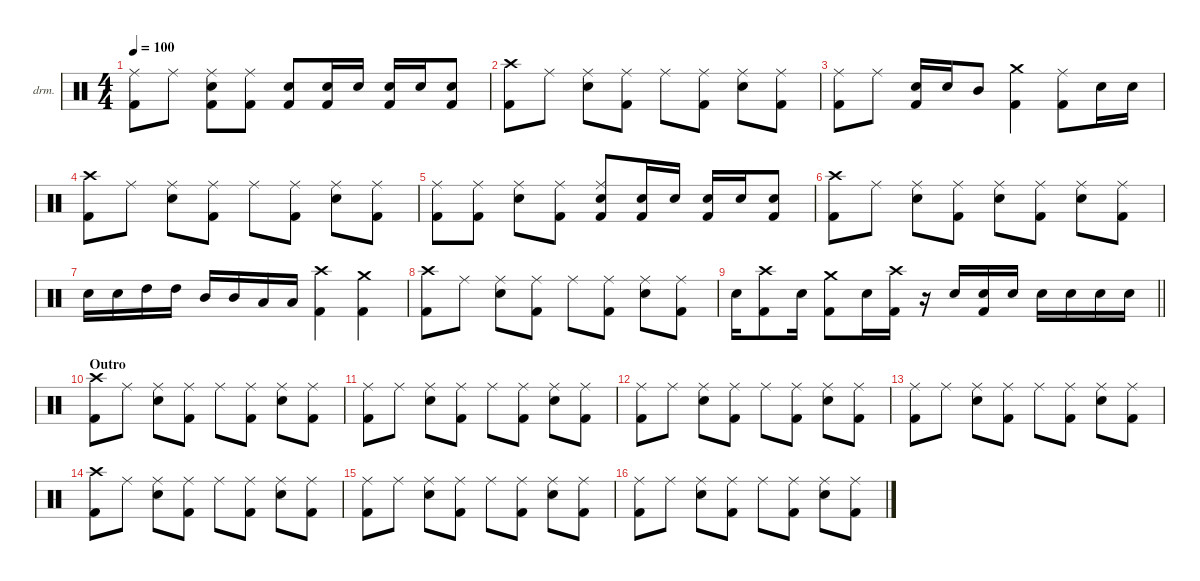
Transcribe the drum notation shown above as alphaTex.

\defaultSystemsLayout 4
\hideDynamics
\bracketExtendMode nobrackets
\firstSystemTrackNameOrientation horizontal
\otherSystemsTrackNameOrientation horizontal
\track ("Drums" "drm.") {instrument percussion}
\staff {score}
\articulation defaults
\ts (4 4)
\tempo 100
\clef neutral
\ks c
("Kick (hit) 2" "Ride (middle)").8{dy f} "Ride (middle)".8 ("Kick (hit) 2" "Snare (hit) 2" "Ride (middle)").8 ("Kick (hit) 2" "Ride (middle)").8 ("Kick (hit) 2" "Snare (hit) 2").8 ("Kick (hit) 2" "Snare (hit) 2").16 "Snare (hit) 2".16 ("Kick (hit) 2" "Snare (hit) 2").16 "Snare (hit) 2".16 ("Kick (hit) 2" "Snare (hit) 2").8 |
("Kick (hit) 2" "Crash high (hit)").8 "Ride (middle)".8 ("Snare (hit) 2" "Ride (middle)").8 ("Kick (hit) 2" "Ride (middle)").8 "Ride (middle)".8 ("Kick (hit) 2" "Ride (middle)").8 ("Snare (hit) 2" "Ride (middle)").8 ("Kick (hit) 2" "Ride (middle)").8 |
("Kick (hit) 2" "Ride (middle)").8 "Ride (middle)".8 ("Kick (hit) 2" "Snare (hit) 2").16 "Snare (hit) 2".16 "Mid Tom (hit)".8 ("Kick (hit) 2" "Crash medium (hit)").4 ("Kick (hit) 2" "Ride (middle)").8 "Snare (hit) 2".16 "Snare (hit) 2".16 |
("Kick (hit) 2" "Crash high (hit)").8 "Ride (middle)".8 ("Snare (hit) 2" "Ride (middle)").8 ("Kick (hit) 2" "Ride (middle)").8 "Ride (middle)".8 ("Kick (hit) 2" "Ride (middle)").8 ("Snare (hit) 2" "Ride (middle)").8 ("Kick (hit) 2" "Ride (middle)").8 |
("Kick (hit) 2" "Ride (middle)").8 ("Kick (hit) 2" "Ride (middle)").8 ("Snare (hit) 2" "Ride (middle)").8 ("Kick (hit) 2" "Ride (middle)").8 ("Kick (hit) 2" "Snare (hit) 2" "Ride (middle)").8 ("Kick (hit) 2" "Snare (hit) 2").16 "Snare (hit) 2".16 ("Kick (hit) 2" "Snare (hit) 2").16 "Snare (hit) 2".16 ("Kick (hit) 2" "Snare (hit) 2").8 |
("Kick (hit) 2" "Crash high (hit)").8 "Ride (middle)".8 ("Snare (hit) 2" "Ride (middle)").8 ("Kick (hit) 2" "Ride (middle)").8 ("Snare (hit) 2" "Ride (middle)").8 ("Kick (hit) 2" "Ride (middle)").8 ("Snare (hit) 2" "Ride (middle)").8 ("Kick (hit) 2" "Ride (middle)").8 |
"Snare (hit) 2".16 "Snare (hit) 2".16 "High Tom (hit)".16 "High Tom (hit)".16 "Mid Tom (hit)".16 "Mid Tom (hit)".16 "Low Tom (hit)".16 "Low Tom (hit)".16 ("Kick (hit) 2" "Crash high (hit)").4 ("Kick (hit) 2" "Crash medium (hit)").4 |
("Kick (hit) 2" "Crash high (hit)").8 "Ride (middle)".8 ("Snare (hit) 2" "Ride (middle)").8 ("Kick (hit) 2" "Ride (middle)").8 "Ride (middle)".8 ("Kick (hit) 2" "Ride (middle)").8 ("Snare (hit) 2" "Ride (middle)").8 ("Kick (hit) 2" "Ride (middle)").8 |
\barLineRight lightlight "Snare (hit) 2".16
("Kick (hit) 2" "Crash high (hit)").8 "Snare (hit) 2".16 ("Kick (hit) 2" "Crash medium (hit)").8 "Snare (hit) 2".16 ("Kick (hit) 2" "Crash high (hit)").16 r.16 "Snare (hit) 2".16 ("Kick (hit) 2" "Snare (hit) 2").16 "Snare (hit) 2".16 "Snare (hit) 2".16 "Snare (hit) 2".16 "Snare (hit) 2".16 "Snare (hit) 2".16 |
\section ("" "Outro")
("Kick (hit) 2" "Crash high (hit)").8 "Ride (middle)".8 ("Snare (hit) 2" "Ride (middle)").8 ("Kick (hit) 2" "Ride (middle)").8 "Ride (middle)".8 ("Kick (hit) 2" "Ride (middle)").8 ("Snare (hit) 2" "Ride (middle)").8 ("Kick (hit) 2" "Ride (middle)").8 |
("Kick (hit) 2" "Ride (middle)").8 "Ride (middle)".8 ("Snare (hit) 2" "Ride (middle)").8 ("Kick (hit) 2" "Ride (middle)").8 "Ride (middle)".8 ("Kick (hit) 2" "Ride (middle)").8 ("Snare (hit) 2" "Ride (middle)").8 ("Kick (hit) 2" "Ride (middle)").8 |
("Kick (hit) 2" "Ride (middle)").8 "Ride (middle)".8 ("Snare (hit) 2" "Ride (middle)").8 ("Kick (hit) 2" "Ride (middle)").8 "Ride (middle)".8 ("Kick (hit) 2" "Ride (middle)").8 ("Snare (hit) 2" "Ride (middle)").8 ("Kick (hit) 2" "Ride (middle)").8 |
("Kick (hit) 2" "Ride (middle)").8 "Ride (middle)".8 ("Snare (hit) 2" "Ride (middle)").8 ("Kick (hit) 2" "Ride (middle)").8 "Ride (middle)".8 ("Kick (hit) 2" "Ride (middle)").8 ("Snare (hit) 2" "Ride (middle)").8 ("Kick (hit) 2" "Ride (middle)").8 |
("Kick (hit) 2" "Crash high (hit)").8 "Ride (middle)".8 ("Snare (hit) 2" "Ride (middle)").8 ("Kick (hit) 2" "Ride (middle)").8 "Ride (middle)".8 ("Kick (hit) 2" "Ride (middle)").8 ("Snare (hit) 2" "Ride (middle)").8 ("Kick (hit) 2" "Ride (middle)").8 |
("Kick (hit) 2" "Ride (middle)").8 "Ride (middle)".8 ("Snare (hit) 2" "Ride (middle)").8 ("Kick (hit) 2" "Ride (middle)").8 "Ride (middle)".8 ("Kick (hit) 2" "Ride (middle)").8 ("Snare (hit) 2" "Ride (middle)").8 ("Kick (hit) 2" "Ride (middle)").8 |
("Kick (hit) 2" "Ride (middle)").8 "Ride (middle)".8 ("Snare (hit) 2" "Ride (middle)").8 ("Kick (hit) 2" "Ride (middle)").8 "Ride (middle)".8 ("Kick (hit) 2" "Ride (middle)").8 ("Snare (hit) 2" "Ride (middle)").8 ("Kick (hit) 2" "Ride (middle)").8
